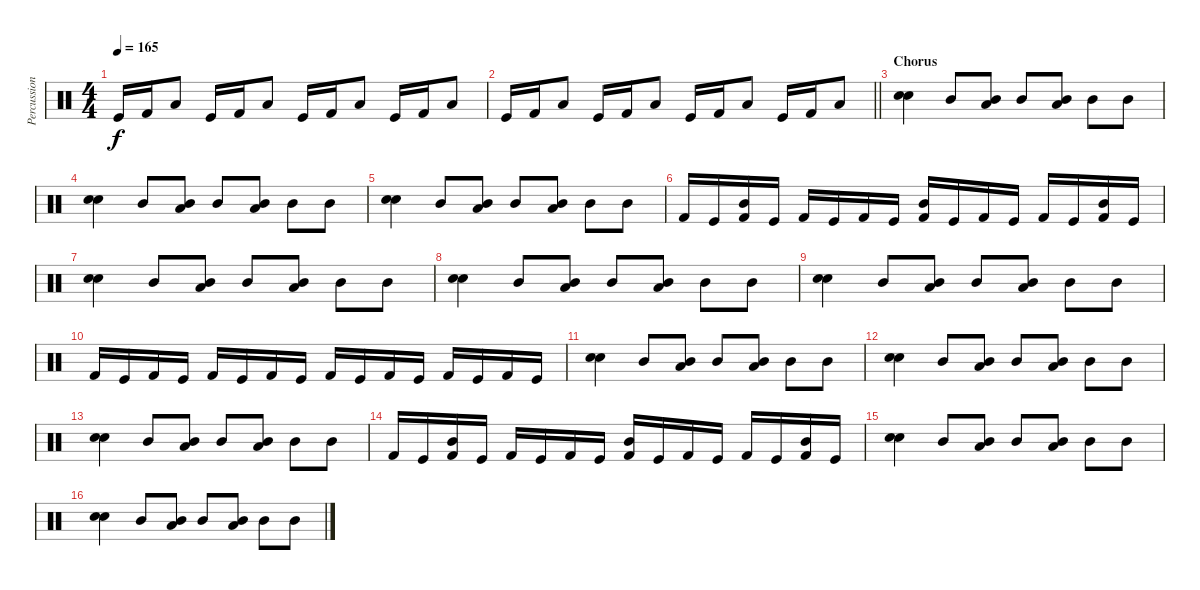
\track ("Percussion" "Percussion") {instrument percussion}
\staff {score}
\articulation defaults
\ts (4 4)
\tempo 165
\clef neutral
\ks c "Kick (hit)".16{dy f} "Kick (hit) 2".16 "Low Tom (hit)".8 "Kick (hit)".16 "Kick (hit) 2".16 "Low Tom (hit)".8 "Kick (hit)".16 "Kick (hit) 2".16 "Low Tom (hit)".8 "Kick (hit)".16 "Kick (hit) 2".16 "Low Tom (hit)".8
|
\barLineRight lightlight "Kick (hit)".16 "Kick (hit) 2".16 "Low Tom (hit)".8 "Kick (hit)".16 "Kick (hit) 2".16 "Low Tom (hit)".8 "Kick (hit)".16 "Kick (hit) 2".16 "Low Tom (hit)".8 "Kick (hit)".16 "Kick (hit) 2".16 "Low Tom (hit)".8
|
\section ("" "Chorus")
("Electric Snare (hit)" "Snare (hit) 2").4 "Mid Tom (hit)".8 ("Low Tom (hit)" "Mid Tom (hit)").8 "Mid Tom (hit)".8 ("Low Tom (hit)" "Mid Tom (hit)").8 "Mid Tom (hit)".8 "Mid Tom (hit)".8 |
("Electric Snare (hit)" "Snare (hit) 2").4 "Mid Tom (hit)".8 ("Low Tom (hit)" "Mid Tom (hit)").8 "Mid Tom (hit)".8 ("Low Tom (hit)" "Mid Tom (hit)").8 "Mid Tom (hit)".8 "Mid Tom (hit)".8 |
("Electric Snare (hit)" "Snare (hit) 2").4 "Mid Tom (hit)".8 ("Low Tom (hit)" "Mid Tom (hit)").8 "Mid Tom (hit)".8 ("Low Tom (hit)" "Mid Tom (hit)").8 "Mid Tom (hit)".8 "Mid Tom (hit)".8 |
"Kick (hit) 2".16 "Kick (hit)".16 ("Kick (hit) 2" "Mid Tom (hit)").16 "Kick (hit)".16 "Kick (hit) 2".16 "Kick (hit)".16 "Kick (hit) 2".16 "Kick (hit)".16 ("Kick (hit) 2" "Mid Tom (hit)").16 "Kick (hit)".16 "Kick (hit) 2".16 "Kick (hit)".16 "Kick (hit) 2".16 "Kick (hit)".16 ("Kick (hit) 2" "Mid Tom (hit)").16 "Kick (hit)".16 |
("Electric Snare (hit)" "Snare (hit) 2").4 "Mid Tom (hit)".8 ("Low Tom (hit)" "Mid Tom (hit)").8 "Mid Tom (hit)".8 ("Low Tom (hit)" "Mid Tom (hit)").8 "Mid Tom (hit)".8 "Mid Tom (hit)".8 |
("Electric Snare (hit)" "Snare (hit) 2").4 "Mid Tom (hit)".8 ("Low Tom (hit)" "Mid Tom (hit)").8 "Mid Tom (hit)".8 ("Low Tom (hit)" "Mid Tom (hit)").8 "Mid Tom (hit)".8 "Mid Tom (hit)".8 |
("Electric Snare (hit)" "Snare (hit) 2").4 "Mid Tom (hit)".8 ("Low Tom (hit)" "Mid Tom (hit)").8 "Mid Tom (hit)".8 ("Low Tom (hit)" "Mid Tom (hit)").8 "Mid Tom (hit)".8 "Mid Tom (hit)".8 |
"Kick (hit) 2".16 "Kick (hit)".16 "Kick (hit) 2".16 "Kick (hit)".16 "Kick (hit) 2".16 "Kick (hit)".16 "Kick (hit) 2".16 "Kick (hit)".16 "Kick (hit) 2".16 "Kick (hit)".16 "Kick (hit) 2".16 "Kick (hit)".16 "Kick (hit) 2".16 "Kick (hit)".16 "Kick (hit) 2".16 "Kick (hit)".16 |
("Electric Snare (hit)" "Snare (hit) 2").4 "Mid Tom (hit)".8 ("Low Tom (hit)" "Mid Tom (hit)").8 "Mid Tom (hit)".8 ("Low Tom (hit)" "Mid Tom (hit)").8 "Mid Tom (hit)".8 "Mid Tom (hit)".8 |
("Electric Snare (hit)" "Snare (hit) 2").4 "Mid Tom (hit)".8 ("Low Tom (hit)" "Mid Tom (hit)").8 "Mid Tom (hit)".8 ("Low Tom (hit)" "Mid Tom (hit)").8 "Mid Tom (hit)".8 "Mid Tom (hit)".8 |
("Electric Snare (hit)" "Snare (hit) 2").4 "Mid Tom (hit)".8 ("Low Tom (hit)" "Mid Tom (hit)").8 "Mid Tom (hit)".8 ("Low Tom (hit)" "Mid Tom (hit)").8 "Mid Tom (hit)".8 "Mid Tom (hit)".8 |
"Kick (hit) 2".16 "Kick (hit)".16 ("Kick (hit) 2" "Mid Tom (hit)").16 "Kick (hit)".16 "Kick (hit) 2".16 "Kick (hit)".16 "Kick (hit) 2".16 "Kick (hit)".16 ("Kick (hit) 2" "Mid Tom (hit)").16 "Kick (hit)".16 "Kick (hit) 2".16 "Kick (hit)".16 "Kick (hit) 2".16 "Kick (hit)".16 ("Kick (hit) 2" "Mid Tom (hit)").16 "Kick (hit)".16 |
("Electric Snare (hit)" "Snare (hit) 2").4 "Mid Tom (hit)".8 ("Low Tom (hit)" "Mid Tom (hit)").8 "Mid Tom (hit)".8 ("Low Tom (hit)" "Mid Tom (hit)").8 "Mid Tom (hit)".8 "Mid Tom (hit)".8 |
("Electric Snare (hit)" "Snare (hit) 2").4 "Mid Tom (hit)".8 ("Low Tom (hit)" "Mid Tom (hit)").8 "Mid Tom (hit)".8 ("Low Tom (hit)" "Mid Tom (hit)").8 "Mid Tom (hit)".8 "Mid Tom (hit)".8
